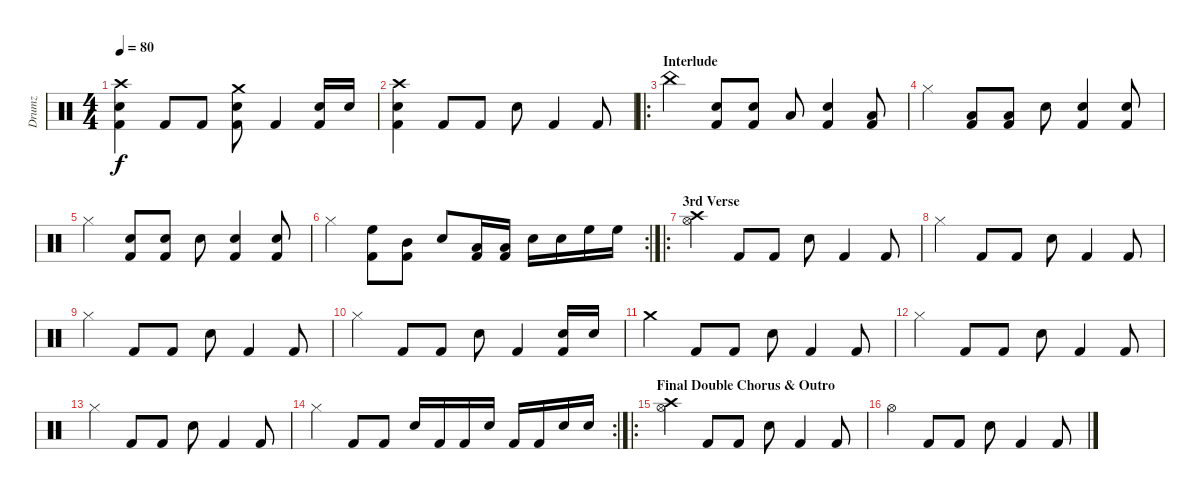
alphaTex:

\track ("Drumz" "Drumz") {instrument percussion}
\staff {score}
\articulation defaults
\ts (4 4)
\tempo 80
\clef neutral
\ks c
("Crash high (hit)" "Snare (hit) 2" "Kick (hit) 2").4{dy f} "Kick (hit) 2".8 "Kick (hit) 2".8 ("Crash medium (hit)" "Snare (hit) 2" "Kick (hit) 2").8 "Kick (hit) 2".4 ("Snare (hit) 2" "Kick (hit) 2").16 "Snare (hit) 2".16 |
("Crash high (hit)" "Snare (hit) 2" "Kick (hit) 2").4 "Kick (hit) 2".8 "Kick (hit) 2".8 "Snare (hit) 2".8 "Kick (hit) 2".4 "Kick (hit) 2".8 |
\ro
\section ("" "Interlude")
"China (hit)".4 ("Snare (hit) 2" "Kick (hit) 2").8 ("Snare (hit) 2" "Kick (hit) 2").8 "Low Tom (hit)".8 ("Snare (hit) 2" "Kick (hit) 2").4 ("Low Tom (hit)" "Kick (hit) 2").8 |
"Hi-Hat (closed)".4 ("Low Tom (hit)" "Kick (hit) 2").8 ("Low Tom (hit)" "Kick (hit) 2").8 "Snare (hit) 2".8 ("Snare (hit) 2" "Kick (hit) 2").4 ("Snare (hit) 2" "Kick (hit) 2").8 |
"Hi-Hat (closed)".4 ("Snare (hit) 2" "Kick (hit) 2").8 ("Snare (hit) 2" "Kick (hit) 2").8 "Snare (hit) 2".8 ("Snare (hit) 2" "Kick (hit) 2").4 ("Snare (hit) 2" "Kick (hit) 2").8 |
\rc 2 "Hi-Hat (closed)".4
("High Floor Tom (hit)" "Kick (hit) 2").8 ("Mid Tom (hit)" "Kick (hit) 2").8 "Snare (hit) 2".8 ("Low Tom (hit)" "Kick (hit) 2").16 ("Low Floor Tom (hit)" "Kick (hit) 2").16 "Snare (hit) 2".16 "Snare (hit) 2".16 "High Floor Tom (hit)".16 "High Floor Tom (hit)".16 |
\ro
\section ("" "3rd Verse")
("Hi-Hat (open)" "Crash high (hit)").4{volume 7} "Kick (hit) 2".8 "Kick (hit) 2".8 "Snare (hit) 2".8 "Kick (hit) 2".4 "Kick (hit) 2".8 |
"Hi-Hat (closed)".4 "Kick (hit) 2".8 "Kick (hit) 2".8 "Snare (hit) 2".8 "Kick (hit) 2".4 "Kick (hit) 2".8 |
"Hi-Hat (closed)".4 "Kick (hit) 2".8 "Kick (hit) 2".8 "Snare (hit) 2".8 "Kick (hit) 2".4 "Kick (hit) 2".8 |
"Hi-Hat (closed)".4 "Kick (hit) 2".8 "Kick (hit) 2".8 "Snare (hit) 2".8 "Kick (hit) 2".4 ("Snare (hit) 2" "Kick (hit) 2").16 "Snare (hit) 2".16 |
"Crash medium (hit)".4 "Kick (hit) 2".8 "Kick (hit) 2".8 "Snare (hit) 2".8 "Kick (hit) 2".4 "Kick (hit) 2".8 |
"Hi-Hat (closed)".4 "Kick (hit) 2".8 "Kick (hit) 2".8 "Snare (hit) 2".8 "Kick (hit) 2".4 "Kick (hit) 2".8 |
"Hi-Hat (closed)".4 "Kick (hit) 2".8 "Kick (hit) 2".8 "Snare (hit) 2".8 "Kick (hit) 2".4 "Kick (hit) 2".8 |
\rc 2 "Hi-Hat (closed)".4 "Kick (hit) 2".8 "Kick (hit) 2".8 "Snare (hit) 2".16 "Kick (hit) 2".16 "Kick (hit) 2".16 "Snare (hit) 2".16 "Kick (hit) 2".16 "Kick (hit) 2".16 "Snare (hit) 2".16 "Snare (hit) 2".16
|
\ro
\section ("" "Final Double Chorus & Outro")
("Hi-Hat (open)" "Crash high (hit)").4{volume 16} "Kick (hit) 2".8 "Kick (hit) 2".8 "Snare (hit) 2".8 "Kick (hit) 2".4 "Kick (hit) 2".8 |
"Hi-Hat (open)".4 "Kick (hit) 2".8 "Kick (hit) 2".8 "Snare (hit) 2".8 "Kick (hit) 2".4 "Kick (hit) 2".8
